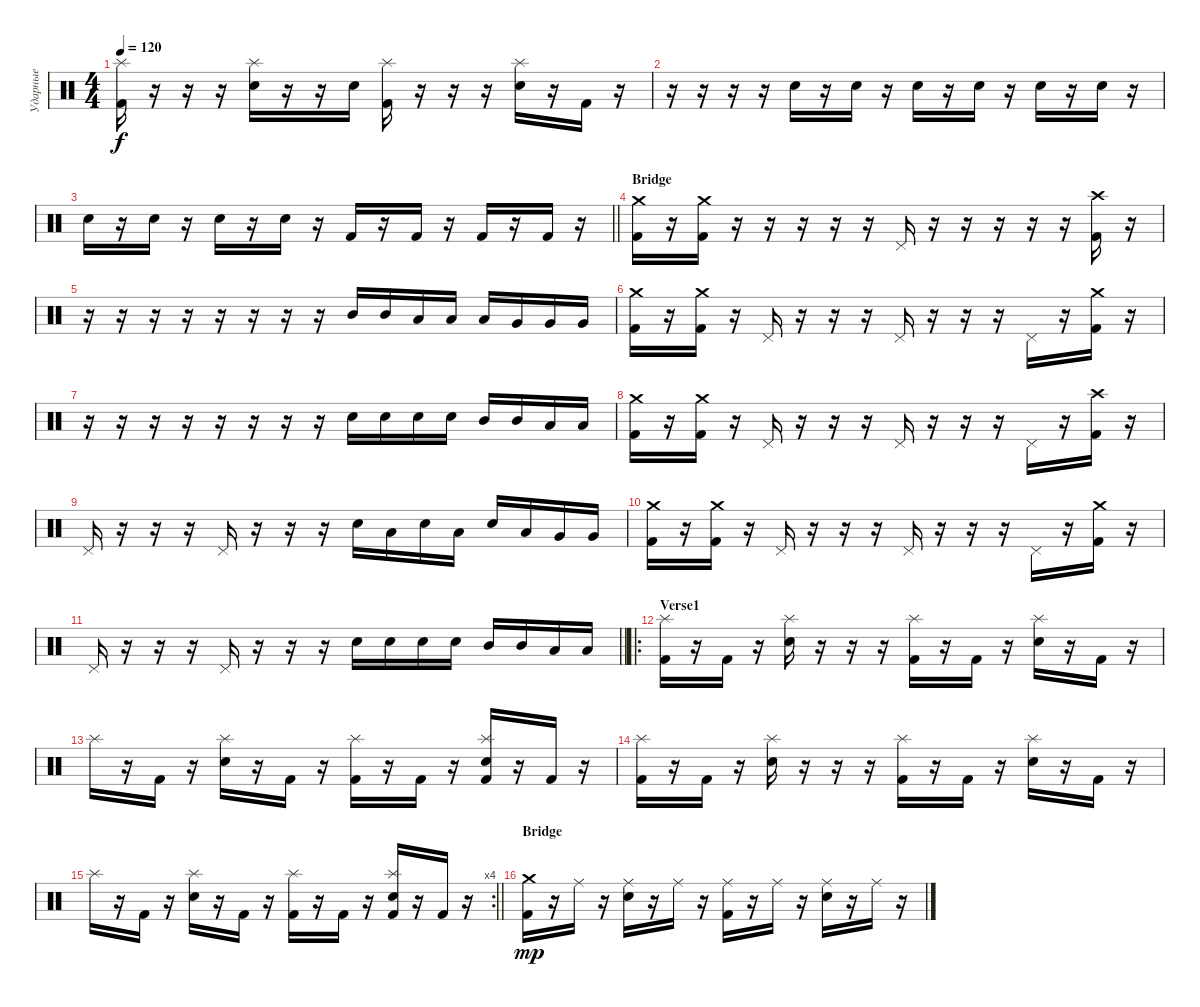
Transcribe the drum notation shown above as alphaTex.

\track ("Ударные" "Ударные") {instrument percussion}
\staff {score}
\articulation defaults
\ts (4 4)
\tempo 120
\clef neutral
\ks c
("Kick (hit) 2" "Splash (hit)").16{dy f} r.16 r.16 r.16 ("Splash (hit)" "Snare (hit) 2").16 r.16 r.16 "Snare (hit) 2".16 ("Kick (hit) 2" "Splash (hit)").16 r.16 r.16 r.16 ("Splash (hit)" "Snare (hit) 2").16 r.16 "Kick (hit) 2".16 r.16 |
r.16 r.16 r.16 r.16 "Snare (hit) 2".16 r.16 "Snare (hit) 2".16 r.16 "Snare (hit) 2".16 r.16 "Snare (hit) 2".16 r.16 "Snare (hit) 2".16 r.16 "Snare (hit) 2".16 r.16 |
\barLineRight lightlight "Snare (hit) 2".16
r.16 "Snare (hit) 2".16 r.16 "Snare (hit) 2".16 r.16 "Snare (hit) 2".16 r.16 "Kick (hit) 2".16 r.16 "Kick (hit) 2".16 r.16 "Kick (hit) 2".16 r.16 "Kick (hit) 2".16 r.16 |
\section ("" "Bridge")
("Kick (hit) 2" "Crash medium (hit)").16 r.16 ("Kick (hit) 2" "Crash medium (hit)").16 r.16 r.16 r.16 r.16 r.16 "Pedal Hi-Hat (hit)".16 r.16 r.16 r.16 r.16 r.16 ("Kick (hit) 2" "Crash high (hit)").16 r.16 |
r.16 r.16 r.16 r.16 r.16 r.16 r.16 r.16 "Mid Tom (hit)".16 "Mid Tom (hit)".16 "Low Tom (hit)".16 "Low Tom (hit)".16 "Low Tom (hit)".16 "Very Low Tom (hit)".16 "Very Low Tom (hit)".16 "Very Low Tom (hit)".16 |
("Kick (hit) 2" "Crash medium (hit)").16 r.16 ("Kick (hit) 2" "Crash medium (hit)").16 r.16 "Pedal Hi-Hat (hit)".16 r.16 r.16 r.16 "Pedal Hi-Hat (hit)".16 r.16 r.16 r.16 "Pedal Hi-Hat (hit)".16 r.16 ("Kick (hit) 2" "Crash medium (hit)").16 r.16 |
r.16 r.16 r.16 r.16 r.16 r.16 r.16 r.16 "Snare (hit) 2".16 "Snare (hit) 2".16 "Snare (hit) 2".16 "Snare (hit) 2".16 "Mid Tom (hit)".16 "Mid Tom (hit)".16 "Low Tom (hit)".16 "Low Tom (hit)".16 |
("Kick (hit) 2" "Crash medium (hit)").16 r.16 ("Kick (hit) 2" "Crash medium (hit)").16 r.16 "Pedal Hi-Hat (hit)".16 r.16 r.16 r.16 "Pedal Hi-Hat (hit)".16 r.16 r.16 r.16 "Pedal Hi-Hat (hit)".16 r.16 ("Kick (hit) 2" "Crash high (hit)").16 r.16 |
"Pedal Hi-Hat (hit)".16 r.16 r.16 r.16 "Pedal Hi-Hat (hit)".16 r.16 r.16 r.16 "Snare (hit) 2".16 "Low Tom (hit)".16 "Snare (hit) 2".16 "Low Tom (hit)".16 "Snare (hit) 2".16 "Low Tom (hit)".16 "Very Low Tom (hit)".16 "Very Low Tom (hit)".16 |
("Kick (hit) 2" "Crash medium (hit)").16 r.16 ("Kick (hit) 2" "Crash medium (hit)").16 r.16 "Pedal Hi-Hat (hit)".16 r.16 r.16 r.16 "Pedal Hi-Hat (hit)".16 r.16 r.16 r.16 "Pedal Hi-Hat (hit)".16 r.16 ("Kick (hit) 2" "Crash medium (hit)").16 r.16 |
\barLineRight lightlight "Pedal Hi-Hat (hit)".16
r.16 r.16 r.16 "Pedal Hi-Hat (hit)".16 r.16 r.16 r.16 "Snare (hit) 2".16 "Snare (hit) 2".16 "Snare (hit) 2".16 "Snare (hit) 2".16 "Mid Tom (hit)".16 "Mid Tom (hit)".16 "Low Tom (hit)".16 "Low Tom (hit)".16 |
\ro
\section ("" "Verse1")
("Kick (hit) 2" "Splash (hit)").16 r.16 "Kick (hit) 2".16 r.16 ("Splash (hit)" "Snare (hit) 2").16 r.16 r.16 r.16 ("Kick (hit) 2" "Splash (hit)").16 r.16 "Kick (hit) 2".16 r.16 ("Splash (hit)" "Snare (hit) 2").16 r.16 "Kick (hit) 2".16 r.16 |
"Splash (hit)".16 r.16 "Kick (hit) 2".16 r.16 ("Splash (hit)" "Snare (hit) 2").16 r.16 "Kick (hit) 2".16 r.16 ("Kick (hit) 2" "Splash (hit)").16 r.16 "Kick (hit) 2".16 r.16 ("Kick (hit) 2" "Splash (hit)" "Snare (hit) 2").16 r.16 "Kick (hit) 2".16 r.16 |
("Kick (hit) 2" "Splash (hit)").16 r.16 "Kick (hit) 2".16 r.16 ("Splash (hit)" "Snare (hit) 2").16 r.16 r.16 r.16 ("Kick (hit) 2" "Splash (hit)").16 r.16 "Kick (hit) 2".16 r.16 ("Splash (hit)" "Snare (hit) 2").16 r.16 "Kick (hit) 2".16 r.16 |
\rc 4
\barLineRight lightlight "Splash (hit)".16
r.16 "Kick (hit) 2".16 r.16 ("Splash (hit)" "Snare (hit) 2").16 r.16 "Kick (hit) 2".16 r.16 ("Kick (hit) 2" "Splash (hit)").16 r.16 "Kick (hit) 2".16 r.16 ("Kick (hit) 2" "Splash (hit)" "Snare (hit) 2").16 r.16 "Kick (hit) 2".16 r.16 |
\section ("" "Bridge")
("Kick (hit) 2" "Crash medium (hit)").16{dy mp} r.16 "Ride (middle)".16 r.16 ("Ride (middle)" "Snare (hit) 2").16 r.16 "Ride (middle)".16 r.16 ("Kick (hit) 2" "Ride (middle)").16 r.16 "Ride (middle)".16 r.16 ("Ride (middle)" "Snare (hit) 2").16 r.16 "Ride (middle)".16 r.16
